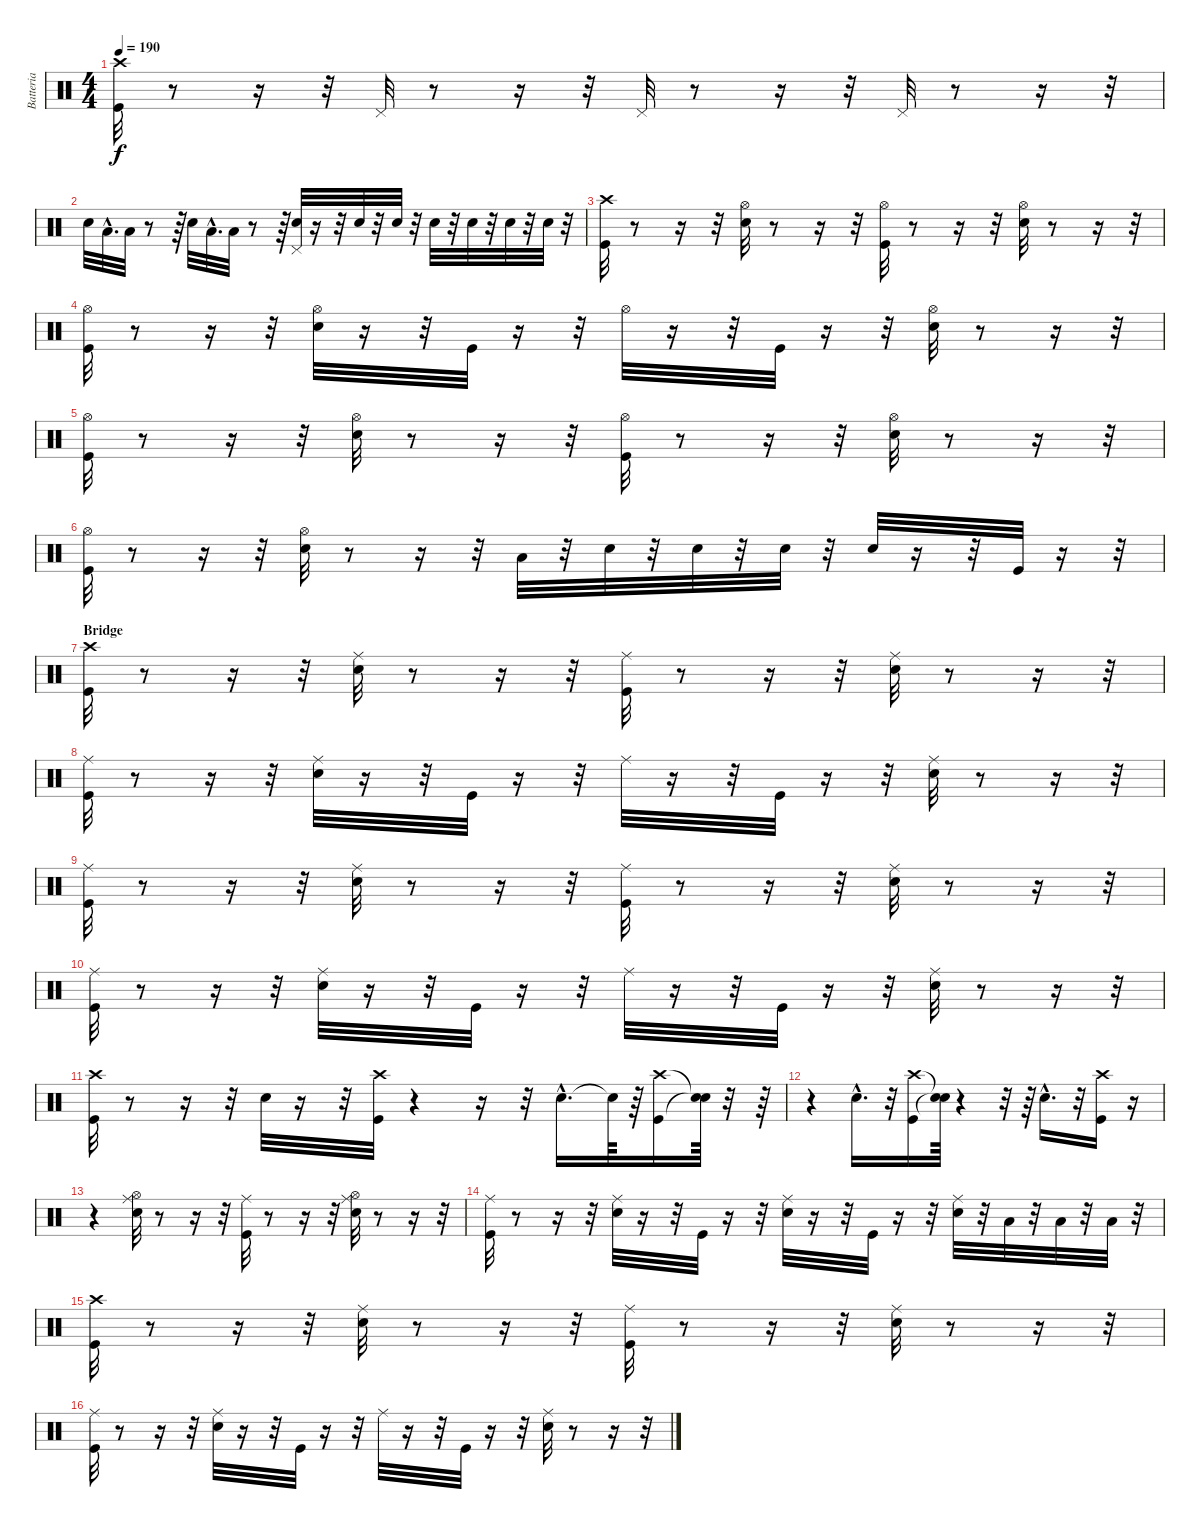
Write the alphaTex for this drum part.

\track ("Batteria" "Batteria") {instrument percussion}
\staff {score}
\articulation defaults
\ts (4 4)
\tempo 190
\clef neutral
\ks c
("Crash high (hit)" "Kick (hit)").32{dy f} r.8 r.16 r.32 "Pedal Hi-Hat (hit)".32 r.8 r.16 r.32 "Pedal Hi-Hat (hit)".32 r.8 r.16 r.32 "Pedal Hi-Hat (hit)".32 r.8 r.16 r.32 |
"Snare (hit) 2".32 "Low Tom (hit)"{hac}.32{d} "Low Tom (hit)".32 r.8 r.64 "Snare (hit) 2".32 "Low Tom (hit)"{hac}.32{d} "Low Tom (hit)".32 r.8 r.64 ("Snare (hit) 2" "Pedal Hi-Hat (hit)").32 r.16 r.32 "Snare (hit) 2".32 r.32 "Snare (hit) 2".32 r.32 "Snare (hit) 2".32 r.32 "Snare (hit) 2".32 r.32 "Snare (hit) 2".32 r.32 "Snare (hit) 2".32 r.32 |
("Kick (hit)" "Crash high (hit)").32 r.8 r.16 r.32 ("Hi-Hat (open)" "Snare (hit) 2").32 r.8 r.16 r.32 ("Hi-Hat (open)" "Kick (hit)").32 r.8 r.16 r.32 ("Snare (hit) 2" "Hi-Hat (open)").32 r.8 r.16 r.32 |
("Kick (hit)" "Hi-Hat (open)").32 r.8 r.16 r.32 ("Hi-Hat (open)" "Snare (hit) 2").32 r.16 r.32 "Kick (hit)".32 r.16 r.32 "Hi-Hat (open)".32 r.16 r.32 "Kick (hit)".32 r.16 r.32 ("Hi-Hat (open)" "Snare (hit) 2").32 r.8 r.16 r.32 |
("Hi-Hat (open)" "Kick (hit)").32 r.8 r.16 r.32 ("Snare (hit) 2" "Hi-Hat (open)").32 r.8 r.16 r.32 ("Hi-Hat (open)" "Kick (hit)").32 r.8 r.16 r.32 ("Hi-Hat (open)" "Snare (hit) 2").32 r.8 r.16 r.32 |
("Kick (hit)" "Hi-Hat (open)").32 r.8 r.16 r.32 ("Snare (hit) 2" "Hi-Hat (open)").32 r.8 r.16 r.32 "Low Tom (hit)".32 r.32 "Snare (hit) 2".32 r.32 "Snare (hit) 2".32 r.32 "Snare (hit) 2".32 r.32 "Snare (hit) 2".32 r.16 r.32 "Kick (hit)".32 r.16 r.32 |
\section ("" "Bridge")
("Crash high (hit)" "Kick (hit)").32 r.8 r.16 r.32 ("Snare (hit) 2" "Ride (middle)").32 r.8 r.16 r.32 ("Ride (middle)" "Kick (hit)").32 r.8 r.16 r.32 ("Ride (middle)" "Snare (hit) 2").32 r.8 r.16 r.32 |
("Ride (middle)" "Kick (hit)").32 r.8 r.16 r.32 ("Snare (hit) 2" "Ride (middle)").32 r.16 r.32 "Kick (hit)".32 r.16 r.32 "Ride (middle)".32 r.16 r.32 "Kick (hit)".32 r.16 r.32 ("Ride (middle)" "Snare (hit) 2").32 r.8 r.16 r.32 |
("Ride (middle)" "Kick (hit)").32 r.8 r.16 r.32 ("Snare (hit) 2" "Ride (middle)").32 r.8 r.16 r.32 ("Ride (middle)" "Kick (hit)").32 r.8 r.16 r.32 ("Ride (middle)" "Snare (hit) 2").32 r.8 r.16 r.32 |
("Ride (middle)" "Kick (hit)").32 r.8 r.16 r.32 ("Snare (hit) 2" "Ride (middle)").32 r.16 r.32 "Kick (hit)".32 r.16 r.32 "Ride (middle)".32 r.16 r.32 "Kick (hit)".32 r.16 r.32 ("Ride (middle)" "Snare (hit) 2").32 r.8 r.16 r.32 |
("Kick (hit)" "Crash high (hit)").32 r.8 r.16 r.32 "Snare (hit) 2".32 r.16 r.32 ("Kick (hit)" "Crash high (hit)").32 r.4 r.16 r.32 "Snare (hit) 2"{hac}.16{d} "Snare (hit)"{t}.64 r.64 ("Kick (hit)" "Crash high (hit)").16 ("Snare (hit)"{t} "Snare (hit)"{t}).64 r.32 r.64 |
r.4 "Snare (hit) 2"{hac}.16{d} r.32 ("Kick (hit)" "Crash high (hit)").16 ("Snare (hit)"{t} "Snare (hit)"{t}).64 r.4 r.32 r.64 "Snare (hit) 2"{hac}.16{d} r.32 ("Kick (hit)" "Crash high (hit)").16 r.16 |
r.4 ("Hi-Hat (open)" "Ride (middle)" "Snare (hit) 2").32 r.8 r.16 r.32 ("Ride (middle)" "Kick (hit)").32 r.8 r.16 r.32 ("Hi-Hat (open)" "Ride (middle)" "Snare (hit) 2").32 r.8 r.16 r.32 |
("Ride (middle)" "Kick (hit)").32 r.8 r.16 r.32 ("Ride (middle)" "Snare (hit) 2").32 r.16 r.32 "Kick (hit)".32 r.16 r.32 ("Ride (middle)" "Snare (hit) 2").32 r.16 r.32 "Kick (hit)".32 r.16 r.32 ("Ride (middle)" "Snare (hit) 2").32 r.32 "Low Tom (hit)".32 r.32 "Low Tom (hit)".32 r.32 "Low Tom (hit)".32 r.32 |
("Crash high (hit)" "Kick (hit)").32 r.8 r.16 r.32 ("Snare (hit) 2" "Ride (middle)").32 r.8 r.16 r.32 ("Ride (middle)" "Kick (hit)").32 r.8 r.16 r.32 ("Ride (middle)" "Snare (hit) 2").32 r.8 r.16 r.32 |
("Ride (middle)" "Kick (hit)").32 r.8 r.16 r.32 ("Snare (hit) 2" "Ride (middle)").32 r.16 r.32 "Kick (hit)".32 r.16 r.32 "Ride (middle)".32 r.16 r.32 "Kick (hit)".32 r.16 r.32 ("Ride (middle)" "Snare (hit) 2").32 r.8 r.16 r.32
